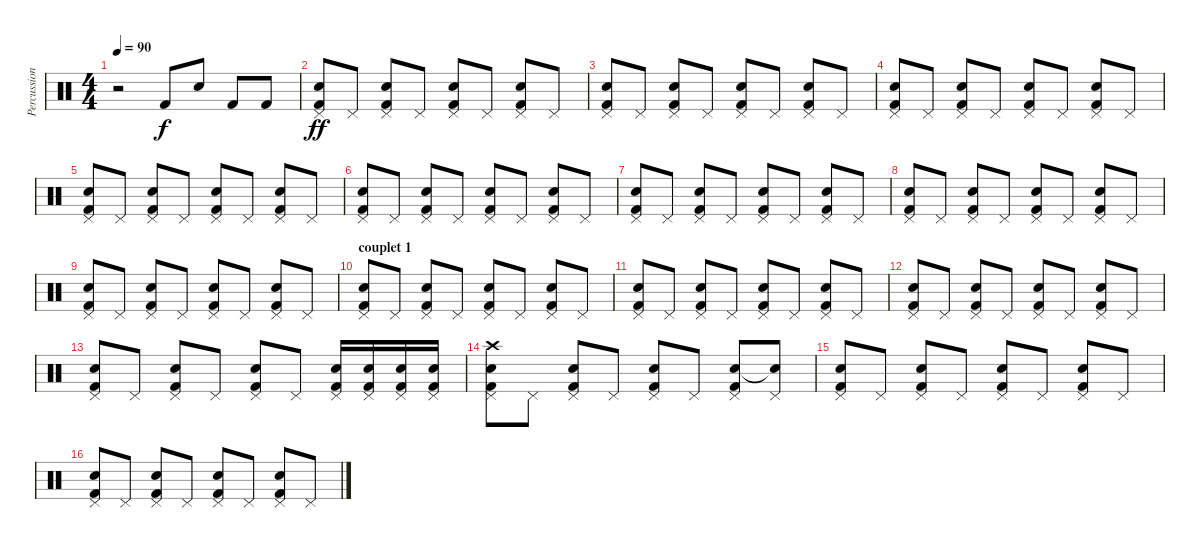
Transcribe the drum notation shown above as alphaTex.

\track ("Percussions" "Percussion") {instrument percussion}
\staff {score}
\articulation defaults
\ts (4 4)
\tempo 90
\clef neutral
\ks c
r.2{dy f} "Kick (hit) 2".8 "Electric Snare (hit)".8 "Kick (hit) 2".8 "Kick (hit) 2".8 |
("Pedal Hi-Hat (hit)" "Electric Snare (hit)" "Kick (hit) 2").8{dy ff} "Pedal Hi-Hat (hit)".8 ("Pedal Hi-Hat (hit)" "Electric Snare (hit)" "Kick (hit) 2").8 "Pedal Hi-Hat (hit)".8 ("Pedal Hi-Hat (hit)" "Electric Snare (hit)" "Kick (hit) 2").8 "Pedal Hi-Hat (hit)".8 ("Pedal Hi-Hat (hit)" "Electric Snare (hit)" "Kick (hit) 2").8 "Pedal Hi-Hat (hit)".8 |
("Pedal Hi-Hat (hit)" "Electric Snare (hit)" "Kick (hit) 2").8 "Pedal Hi-Hat (hit)".8 ("Pedal Hi-Hat (hit)" "Electric Snare (hit)" "Kick (hit) 2").8 "Pedal Hi-Hat (hit)".8 ("Pedal Hi-Hat (hit)" "Electric Snare (hit)" "Kick (hit) 2").8 "Pedal Hi-Hat (hit)".8 ("Pedal Hi-Hat (hit)" "Electric Snare (hit)" "Kick (hit) 2").8 "Pedal Hi-Hat (hit)".8 |
("Pedal Hi-Hat (hit)" "Electric Snare (hit)" "Kick (hit) 2").8 "Pedal Hi-Hat (hit)".8 ("Pedal Hi-Hat (hit)" "Electric Snare (hit)" "Kick (hit) 2").8 "Pedal Hi-Hat (hit)".8 ("Pedal Hi-Hat (hit)" "Electric Snare (hit)" "Kick (hit) 2").8 "Pedal Hi-Hat (hit)".8 ("Pedal Hi-Hat (hit)" "Electric Snare (hit)" "Kick (hit) 2").8 "Pedal Hi-Hat (hit)".8 |
("Pedal Hi-Hat (hit)" "Electric Snare (hit)" "Kick (hit) 2").8 "Pedal Hi-Hat (hit)".8 ("Pedal Hi-Hat (hit)" "Electric Snare (hit)" "Kick (hit) 2").8 "Pedal Hi-Hat (hit)".8 ("Pedal Hi-Hat (hit)" "Electric Snare (hit)" "Kick (hit) 2").8 "Pedal Hi-Hat (hit)".8 ("Pedal Hi-Hat (hit)" "Electric Snare (hit)" "Kick (hit) 2").8 "Pedal Hi-Hat (hit)".8 |
("Pedal Hi-Hat (hit)" "Electric Snare (hit)" "Kick (hit) 2").8 "Pedal Hi-Hat (hit)".8 ("Pedal Hi-Hat (hit)" "Electric Snare (hit)" "Kick (hit) 2").8 "Pedal Hi-Hat (hit)".8 ("Pedal Hi-Hat (hit)" "Electric Snare (hit)" "Kick (hit) 2").8 "Pedal Hi-Hat (hit)".8 ("Pedal Hi-Hat (hit)" "Electric Snare (hit)" "Kick (hit) 2").8 "Pedal Hi-Hat (hit)".8 |
("Pedal Hi-Hat (hit)" "Electric Snare (hit)" "Kick (hit) 2").8 "Pedal Hi-Hat (hit)".8 ("Pedal Hi-Hat (hit)" "Electric Snare (hit)" "Kick (hit) 2").8 "Pedal Hi-Hat (hit)".8 ("Pedal Hi-Hat (hit)" "Electric Snare (hit)" "Kick (hit) 2").8 "Pedal Hi-Hat (hit)".8 ("Pedal Hi-Hat (hit)" "Electric Snare (hit)" "Kick (hit) 2").8 "Pedal Hi-Hat (hit)".8 |
("Pedal Hi-Hat (hit)" "Electric Snare (hit)" "Kick (hit) 2").8 "Pedal Hi-Hat (hit)".8 ("Pedal Hi-Hat (hit)" "Electric Snare (hit)" "Kick (hit) 2").8 "Pedal Hi-Hat (hit)".8 ("Pedal Hi-Hat (hit)" "Electric Snare (hit)" "Kick (hit) 2").8 "Pedal Hi-Hat (hit)".8 ("Pedal Hi-Hat (hit)" "Electric Snare (hit)" "Kick (hit) 2").8 "Pedal Hi-Hat (hit)".8 |
("Pedal Hi-Hat (hit)" "Electric Snare (hit)" "Kick (hit) 2").8 "Pedal Hi-Hat (hit)".8 ("Pedal Hi-Hat (hit)" "Electric Snare (hit)" "Kick (hit) 2").8 "Pedal Hi-Hat (hit)".8 ("Pedal Hi-Hat (hit)" "Electric Snare (hit)" "Kick (hit) 2").8 "Pedal Hi-Hat (hit)".8 ("Pedal Hi-Hat (hit)" "Electric Snare (hit)" "Kick (hit) 2").8 "Pedal Hi-Hat (hit)".8 |
\section ("" "couplet 1")
("Pedal Hi-Hat (hit)" "Electric Snare (hit)" "Kick (hit) 2").8 "Pedal Hi-Hat (hit)".8 ("Pedal Hi-Hat (hit)" "Electric Snare (hit)" "Kick (hit) 2").8 "Pedal Hi-Hat (hit)".8 ("Pedal Hi-Hat (hit)" "Electric Snare (hit)" "Kick (hit) 2").8 "Pedal Hi-Hat (hit)".8 ("Pedal Hi-Hat (hit)" "Electric Snare (hit)" "Kick (hit) 2").8 "Pedal Hi-Hat (hit)".8 |
("Pedal Hi-Hat (hit)" "Electric Snare (hit)" "Kick (hit) 2").8 "Pedal Hi-Hat (hit)".8 ("Pedal Hi-Hat (hit)" "Electric Snare (hit)" "Kick (hit) 2").8 "Pedal Hi-Hat (hit)".8 ("Pedal Hi-Hat (hit)" "Electric Snare (hit)" "Kick (hit) 2").8 "Pedal Hi-Hat (hit)".8 ("Pedal Hi-Hat (hit)" "Electric Snare (hit)" "Kick (hit) 2").8 "Pedal Hi-Hat (hit)".8 |
("Pedal Hi-Hat (hit)" "Electric Snare (hit)" "Kick (hit) 2").8 "Pedal Hi-Hat (hit)".8 ("Pedal Hi-Hat (hit)" "Electric Snare (hit)" "Kick (hit) 2").8 "Pedal Hi-Hat (hit)".8 ("Pedal Hi-Hat (hit)" "Electric Snare (hit)" "Kick (hit) 2").8 "Pedal Hi-Hat (hit)".8 ("Pedal Hi-Hat (hit)" "Electric Snare (hit)" "Kick (hit) 2").8 "Pedal Hi-Hat (hit)".8 |
("Pedal Hi-Hat (hit)" "Electric Snare (hit)" "Kick (hit) 2").8 "Pedal Hi-Hat (hit)".8 ("Pedal Hi-Hat (hit)" "Electric Snare (hit)" "Kick (hit) 2").8 "Pedal Hi-Hat (hit)".8 ("Pedal Hi-Hat (hit)" "Electric Snare (hit)" "Kick (hit) 2").8 "Pedal Hi-Hat (hit)".8 ("Pedal Hi-Hat (hit)" "Electric Snare (hit)" "Kick (hit) 2").16 ("Pedal Hi-Hat (hit)" "Electric Snare (hit)" "Kick (hit) 2").16 ("Pedal Hi-Hat (hit)" "Electric Snare (hit)" "Kick (hit) 2").16 ("Pedal Hi-Hat (hit)" "Electric Snare (hit)" "Kick (hit) 2").16 |
("Pedal Hi-Hat (hit)" "Crash high (hit)" "Electric Snare (hit)" "Kick (hit) 2").8 "Pedal Hi-Hat (hit)".8 ("Pedal Hi-Hat (hit)" "Electric Snare (hit)" "Kick (hit) 2").8 "Pedal Hi-Hat (hit)".8 ("Pedal Hi-Hat (hit)" "Electric Snare (hit)" "Kick (hit) 2").8 "Pedal Hi-Hat (hit)".8 ("Pedal Hi-Hat (hit)" "Electric Snare (hit)" "Kick (hit) 2").8 ("Pedal Hi-Hat (hit)" "Snare (hit)"{t}).8 |
("Pedal Hi-Hat (hit)" "Electric Snare (hit)" "Kick (hit) 2").8 "Pedal Hi-Hat (hit)".8 ("Pedal Hi-Hat (hit)" "Electric Snare (hit)" "Kick (hit) 2").8 "Pedal Hi-Hat (hit)".8 ("Pedal Hi-Hat (hit)" "Electric Snare (hit)" "Kick (hit) 2").8 "Pedal Hi-Hat (hit)".8 ("Pedal Hi-Hat (hit)" "Electric Snare (hit)" "Kick (hit) 2").8 "Pedal Hi-Hat (hit)".8 |
("Pedal Hi-Hat (hit)" "Electric Snare (hit)" "Kick (hit) 2").8 "Pedal Hi-Hat (hit)".8 ("Pedal Hi-Hat (hit)" "Electric Snare (hit)" "Kick (hit) 2").8 "Pedal Hi-Hat (hit)".8 ("Pedal Hi-Hat (hit)" "Electric Snare (hit)" "Kick (hit) 2").8 "Pedal Hi-Hat (hit)".8 ("Pedal Hi-Hat (hit)" "Electric Snare (hit)" "Kick (hit) 2").8 "Pedal Hi-Hat (hit)".8
